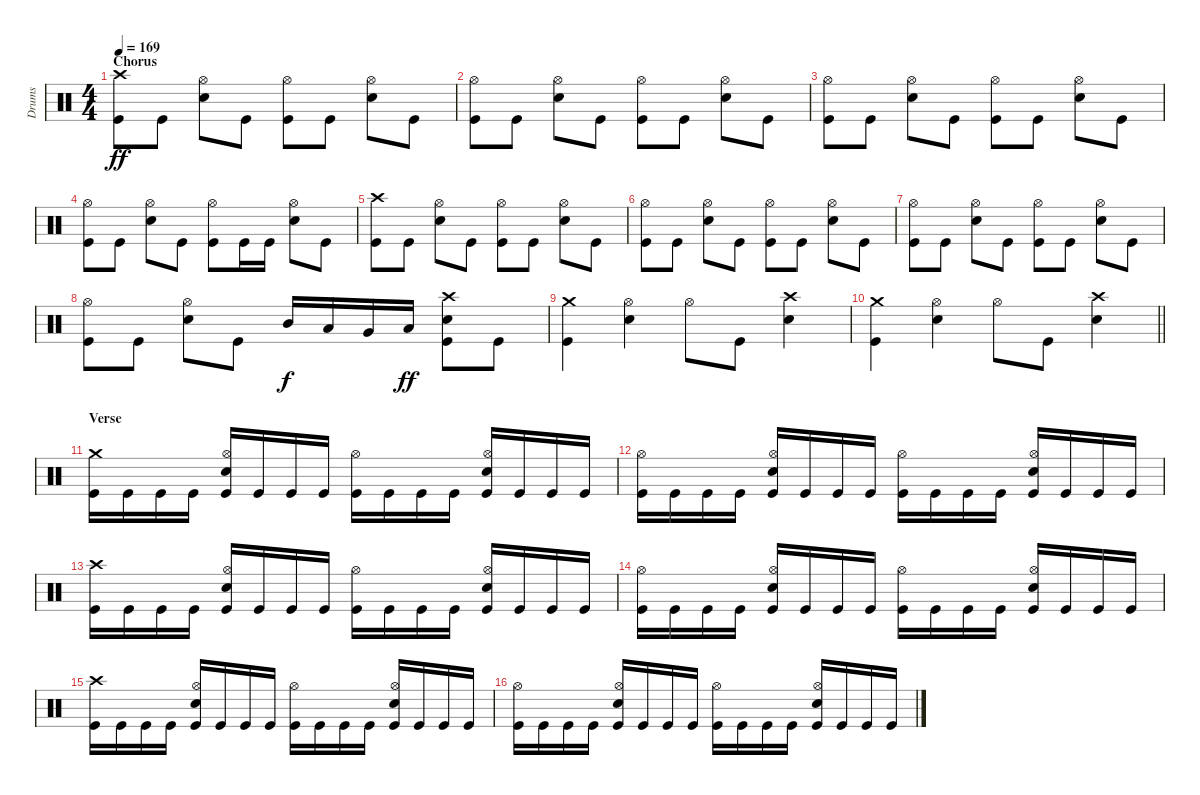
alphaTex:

\track ("Drums" "Drums") {instrument percussion}
\staff {score}
\articulation defaults
\ts (4 4)
\section ("" "Chorus")
\tempo 169
\clef neutral
\ks c
("Crash high (hit)" "Kick (hit)").8{dy ff} "Kick (hit)".8 ("Hi-Hat (open)" "Electric Snare (hit)").8 "Kick (hit)".8 ("Hi-Hat (open)" "Kick (hit)").8 "Kick (hit)".8 ("Hi-Hat (open)" "Electric Snare (hit)").8 "Kick (hit)".8 |
("Hi-Hat (open)" "Kick (hit)").8 "Kick (hit)".8 ("Hi-Hat (open)" "Electric Snare (hit)").8 "Kick (hit)".8 ("Hi-Hat (open)" "Kick (hit)").8 "Kick (hit)".8 ("Hi-Hat (open)" "Electric Snare (hit)").8 "Kick (hit)".8 |
("Hi-Hat (open)" "Kick (hit)").8 "Kick (hit)".8 ("Hi-Hat (open)" "Electric Snare (hit)").8 "Kick (hit)".8 ("Hi-Hat (open)" "Kick (hit)").8 "Kick (hit)".8 ("Hi-Hat (open)" "Electric Snare (hit)").8 "Kick (hit)".8 |
("Hi-Hat (open)" "Kick (hit)").8 "Kick (hit)".8 ("Hi-Hat (open)" "Electric Snare (hit)").8 "Kick (hit)".8 ("Hi-Hat (open)" "Kick (hit)").8 "Kick (hit)".16 "Kick (hit)".16 ("Hi-Hat (open)" "Electric Snare (hit)").8 "Kick (hit)".8 |
("Crash high (hit)" "Kick (hit)").8 "Kick (hit)".8 ("Hi-Hat (open)" "Electric Snare (hit)").8 "Kick (hit)".8 ("Hi-Hat (open)" "Kick (hit)").8 "Kick (hit)".8 ("Hi-Hat (open)" "Electric Snare (hit)").8 "Kick (hit)".8 |
("Hi-Hat (open)" "Kick (hit)").8 "Kick (hit)".8 ("Hi-Hat (open)" "Electric Snare (hit)").8 "Kick (hit)".8 ("Hi-Hat (open)" "Kick (hit)").8 "Kick (hit)".8 ("Hi-Hat (open)" "Electric Snare (hit)").8 "Kick (hit)".8 |
("Hi-Hat (open)" "Kick (hit)").8 "Kick (hit)".8 ("Hi-Hat (open)" "Electric Snare (hit)").8 "Kick (hit)".8 ("Hi-Hat (open)" "Kick (hit)").8 "Kick (hit)".8 ("Hi-Hat (open)" "Electric Snare (hit)").8 "Kick (hit)".8 |
("Hi-Hat (open)" "Kick (hit)").8 "Kick (hit)".8 ("Hi-Hat (open)" "Electric Snare (hit)").8 "Kick (hit)".8 "Mid Tom (hit)".16{dy f} "Low Tom (hit)".16 "Very Low Tom (hit)".16 "Low Floor Tom (hit)".16{dy ff} ("Crash high (hit)" "Electric Snare (hit)" "Kick (hit)").8 "Kick (hit)".8 |
("Crash medium (hit)" "Kick (hit)").4 ("Hi-Hat (open)" "Electric Snare (hit)").4 "Hi-Hat (open)".8 "Kick (hit)".8 ("Crash high (hit)" "Electric Snare (hit)").4 |
\barLineRight lightlight
("Crash medium (hit)" "Kick (hit)").4 ("Hi-Hat (open)" "Electric Snare (hit)").4 "Hi-Hat (open)".8 "Kick (hit)".8 ("Crash high (hit)" "Electric Snare (hit)").4 |
\section ("" "Verse")
("Crash medium (hit)" "Kick (hit)").16 "Kick (hit)".16 "Kick (hit)".16 "Kick (hit)".16 ("Hi-Hat (open)" "Electric Snare (hit)" "Kick (hit)").16 "Kick (hit)".16 "Kick (hit)".16 "Kick (hit)".16 ("Hi-Hat (open)" "Kick (hit)").16 "Kick (hit)".16 "Kick (hit)".16 "Kick (hit)".16 ("Hi-Hat (open)" "Electric Snare (hit)" "Kick (hit)").16 "Kick (hit)".16 "Kick (hit)".16 "Kick (hit)".16 |
("Hi-Hat (open)" "Kick (hit)").16 "Kick (hit)".16 "Kick (hit)".16 "Kick (hit)".16 ("Hi-Hat (open)" "Electric Snare (hit)" "Kick (hit)").16 "Kick (hit)".16 "Kick (hit)".16 "Kick (hit)".16 ("Hi-Hat (open)" "Kick (hit)").16 "Kick (hit)".16 "Kick (hit)".16 "Kick (hit)".16 ("Hi-Hat (open)" "Electric Snare (hit)" "Kick (hit)").16 "Kick (hit)".16 "Kick (hit)".16 "Kick (hit)".16 |
("Crash high (hit)" "Kick (hit)").16 "Kick (hit)".16 "Kick (hit)".16 "Kick (hit)".16 ("Hi-Hat (open)" "Electric Snare (hit)" "Kick (hit)").16 "Kick (hit)".16 "Kick (hit)".16 "Kick (hit)".16 ("Hi-Hat (open)" "Kick (hit)").16 "Kick (hit)".16 "Kick (hit)".16 "Kick (hit)".16 ("Hi-Hat (open)" "Electric Snare (hit)" "Kick (hit)").16 "Kick (hit)".16 "Kick (hit)".16 "Kick (hit)".16 |
("Hi-Hat (open)" "Kick (hit)").16 "Kick (hit)".16 "Kick (hit)".16 "Kick (hit)".16 ("Hi-Hat (open)" "Electric Snare (hit)" "Kick (hit)").16 "Kick (hit)".16 "Kick (hit)".16 "Kick (hit)".16 ("Hi-Hat (open)" "Kick (hit)").16 "Kick (hit)".16 "Kick (hit)".16 "Kick (hit)".16 ("Hi-Hat (open)" "Electric Snare (hit)" "Kick (hit)").16 "Kick (hit)".16 "Kick (hit)".16 "Kick (hit)".16 |
("Crash high (hit)" "Kick (hit)").16 "Kick (hit)".16 "Kick (hit)".16 "Kick (hit)".16 ("Hi-Hat (open)" "Electric Snare (hit)" "Kick (hit)").16 "Kick (hit)".16 "Kick (hit)".16 "Kick (hit)".16 ("Hi-Hat (open)" "Kick (hit)").16 "Kick (hit)".16 "Kick (hit)".16 "Kick (hit)".16 ("Hi-Hat (open)" "Electric Snare (hit)" "Kick (hit)").16 "Kick (hit)".16 "Kick (hit)".16 "Kick (hit)".16 |
("Hi-Hat (open)" "Kick (hit)").16 "Kick (hit)".16 "Kick (hit)".16 "Kick (hit)".16 ("Hi-Hat (open)" "Electric Snare (hit)" "Kick (hit)").16 "Kick (hit)".16 "Kick (hit)".16 "Kick (hit)".16 ("Hi-Hat (open)" "Kick (hit)").16 "Kick (hit)".16 "Kick (hit)".16 "Kick (hit)".16 ("Hi-Hat (open)" "Electric Snare (hit)" "Kick (hit)").16 "Kick (hit)".16 "Kick (hit)".16 "Kick (hit)".16
